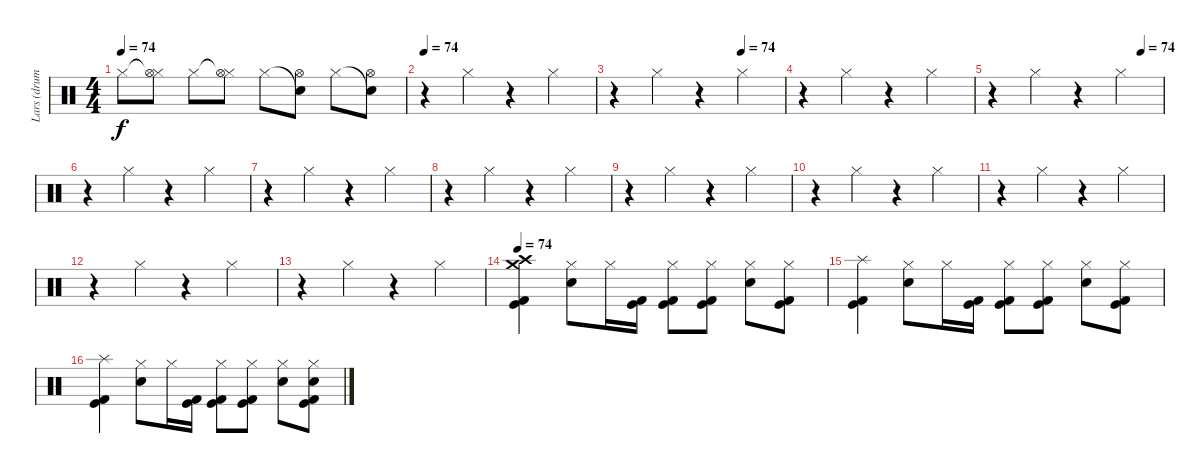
\track ("Lars (drums)" "Lars (drum") {instrument percussion}
\staff {score}
\articulation defaults
\ts (4 4)
\tempo 74
\clef neutral
\ks c "Hi-Hat (closed)".8{dy f}
("Hi-Hat (closed)"{t} "Hi-Hat (open)").8 "Hi-Hat (closed)".8 ("Hi-Hat (closed)"{t} "Hi-Hat (open)").8 "Hi-Hat (closed)".8 ("Snare (hit)"{t} "Hi-Hat (open)").8 "Hi-Hat (closed)".8 ("Snare (hit)"{t} "Hi-Hat (open)").8 |
\tempo 74
r.4 "Hi-Hat (closed)".4 r.4 "Hi-Hat (closed)".4 |
\tempo (74 0.75)
r.4 "Hi-Hat (closed)".4 r.4 "Hi-Hat (closed)".4 |
r.4 "Hi-Hat (closed)".4 r.4 "Hi-Hat (closed)".4 |
\tempo (74 0.875)
r.4 "Hi-Hat (closed)".4 r.4 "Hi-Hat (closed)".4 |
r.4 "Hi-Hat (closed)".4 r.4 "Hi-Hat (closed)".4 |
r.4 "Hi-Hat (closed)".4 r.4 "Hi-Hat (closed)".4 |
r.4 "Hi-Hat (closed)".4 r.4 "Hi-Hat (closed)".4 |
r.4 "Hi-Hat (closed)".4 r.4 "Hi-Hat (closed)".4 |
r.4 "Hi-Hat (closed)".4 r.4 "Hi-Hat (closed)".4 |
r.4 "Hi-Hat (closed)".4 r.4 "Hi-Hat (closed)".4 |
r.4 "Hi-Hat (closed)".4 r.4 "Hi-Hat (closed)".4 |
r.4 "Hi-Hat (closed)".4 r.4 "Hi-Hat (closed)".4 |
\tempo 74
("Crash medium (hit)" "Crash high (hit)" "Kick (hit) 2" "Kick (hit)").4 ("Hi-Hat (closed)" "Electric Snare (hit)").8 "Hi-Hat (closed)".16 ("Kick (hit) 2" "Kick (hit)").16 ("Hi-Hat (closed)" "Kick (hit) 2" "Kick (hit)").8 ("Hi-Hat (closed)" "Kick (hit)" "Kick (hit) 2").8 ("Hi-Hat (closed)" "Electric Snare (hit)").8 ("Hi-Hat (closed)" "Kick (hit) 2" "Kick (hit)").8 |
("Splash (hit)" "Kick (hit) 2" "Kick (hit)").4 ("Hi-Hat (closed)" "Electric Snare (hit)").8 "Hi-Hat (closed)".16 ("Kick (hit) 2" "Kick (hit)").16 ("Hi-Hat (closed)" "Kick (hit) 2" "Kick (hit)").8 ("Hi-Hat (closed)" "Kick (hit)" "Kick (hit) 2").8 ("Hi-Hat (closed)" "Electric Snare (hit)").8 ("Hi-Hat (closed)" "Kick (hit) 2" "Kick (hit)").8 |
("Splash (hit)" "Kick (hit) 2" "Kick (hit)").4 ("Hi-Hat (closed)" "Electric Snare (hit)").8 "Hi-Hat (closed)".16 ("Kick (hit) 2" "Kick (hit)").16 ("Hi-Hat (closed)" "Kick (hit) 2" "Kick (hit)").8 ("Hi-Hat (closed)" "Kick (hit)" "Kick (hit) 2").8 ("Hi-Hat (closed)" "Electric Snare (hit)").8 ("Hi-Hat (closed)" "Electric Snare (hit)" "Kick (hit) 2" "Kick (hit)").8
